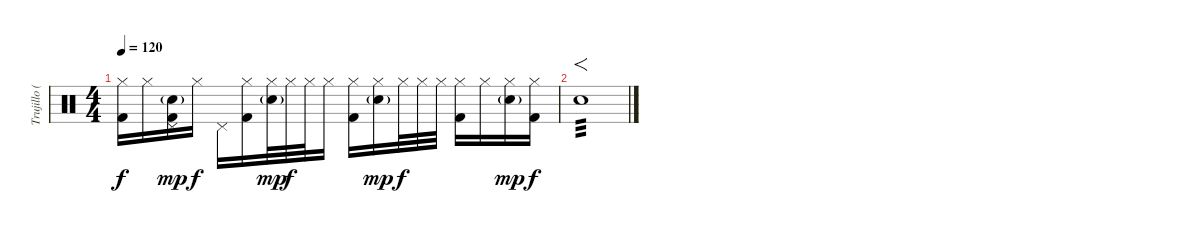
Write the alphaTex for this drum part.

\track ("Trujillo (Percussion)" "Trujillo (") {instrument percussion}
\staff {score}
\articulation defaults
\ts (4 4)
\tempo 120
\clef neutral
\ks c
("Hi-Hat (closed)" "Kick (hit) 2").16{dy f} "Hi-Hat (closed)".16 ("Pedal Hi-Hat (hit)" "Electric Snare (hit)"{g} "Kick (hit) 2").16{dy mp} "Hi-Hat (closed)".16{dy f} "Pedal Hi-Hat (hit)".16 ("Hi-Hat (closed)" "Kick (hit) 2").16 ("Hi-Hat (closed)" "Electric Snare (hit)"{g}).32{dy mp} "Hi-Hat (closed)".32{dy f} "Hi-Hat (closed)".32 "Hi-Hat (closed)".16 ("Hi-Hat (closed)" "Kick (hit) 2").16 ("Hi-Hat (closed)" "Electric Snare (hit)"{g}).16{dy mp} "Hi-Hat (closed)".32{dy f} "Hi-Hat (closed)".32 "Hi-Hat (closed)".32 ("Hi-Hat (closed)" "Kick (hit) 2").16 "Hi-Hat (closed)".16 ("Hi-Hat (closed)" "Electric Snare (hit)"{g}).16{dy mp} ("Hi-Hat (closed)" "Kick (hit) 2").16{dy f} |
"Electric Snare (hit)".1{f tp 3}
